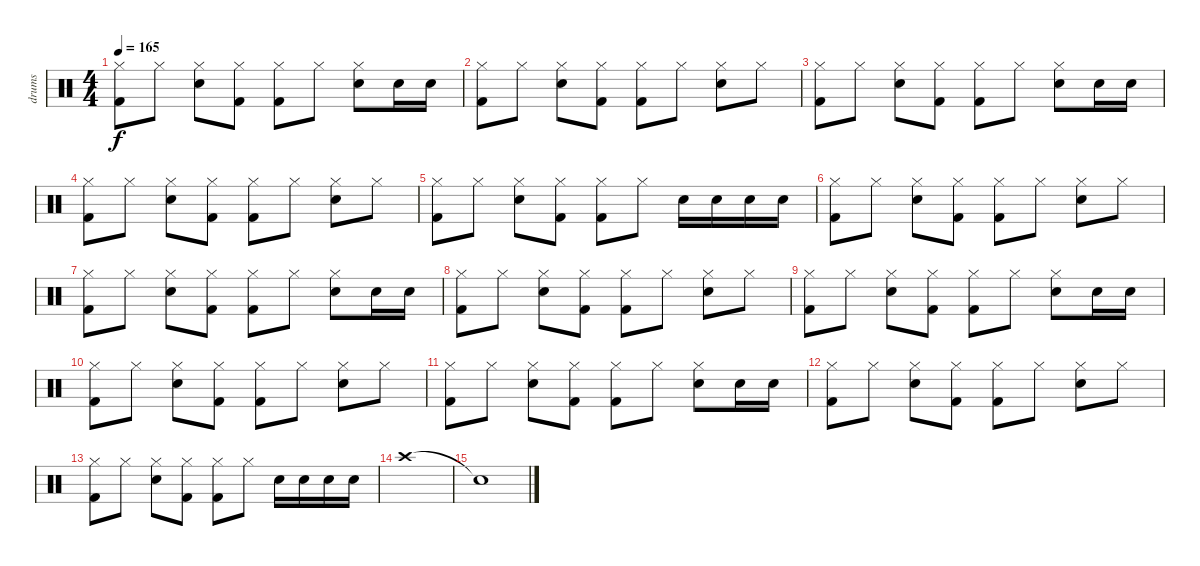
\track ("drums" "drums") {instrument percussion}
\staff {score}
\articulation defaults
\ts (4 4)
\tempo 165
\clef neutral
\ks c
("Hi-Hat (closed)" "Kick (hit) 2").8{dy f} "Hi-Hat (closed)".8 ("Snare (hit) 2" "Hi-Hat (closed)").8 ("Hi-Hat (closed)" "Kick (hit) 2").8 ("Hi-Hat (closed)" "Kick (hit) 2").8 "Hi-Hat (closed)".8 ("Snare (hit) 2" "Hi-Hat (closed)").8 "Snare (hit) 2".16 "Snare (hit) 2".16 |
("Hi-Hat (closed)" "Kick (hit) 2").8 "Hi-Hat (closed)".8 ("Snare (hit) 2" "Hi-Hat (closed)").8 ("Hi-Hat (closed)" "Kick (hit) 2").8 ("Hi-Hat (closed)" "Kick (hit) 2").8 "Hi-Hat (closed)".8 ("Snare (hit) 2" "Hi-Hat (closed)").8 "Hi-Hat (closed)".8 |
("Hi-Hat (closed)" "Kick (hit) 2").8 "Hi-Hat (closed)".8 ("Snare (hit) 2" "Hi-Hat (closed)").8 ("Hi-Hat (closed)" "Kick (hit) 2").8 ("Hi-Hat (closed)" "Kick (hit) 2").8 "Hi-Hat (closed)".8 ("Snare (hit) 2" "Hi-Hat (closed)").8 "Snare (hit) 2".16 "Snare (hit) 2".16 |
("Hi-Hat (closed)" "Kick (hit) 2").8 "Hi-Hat (closed)".8 ("Snare (hit) 2" "Hi-Hat (closed)").8 ("Hi-Hat (closed)" "Kick (hit) 2").8 ("Hi-Hat (closed)" "Kick (hit) 2").8 "Hi-Hat (closed)".8 ("Snare (hit) 2" "Hi-Hat (closed)").8 "Hi-Hat (closed)".8 |
("Hi-Hat (closed)" "Kick (hit) 2").8 "Hi-Hat (closed)".8 ("Snare (hit) 2" "Hi-Hat (closed)").8 ("Hi-Hat (closed)" "Kick (hit) 2").8 ("Hi-Hat (closed)" "Kick (hit) 2").8 "Hi-Hat (closed)".8 "Snare (hit) 2".16 "Snare (hit) 2".16 "Snare (hit) 2".16 "Snare (hit) 2".16 |
("Hi-Hat (closed)" "Kick (hit) 2").8 "Hi-Hat (closed)".8 ("Snare (hit) 2" "Hi-Hat (closed)").8 ("Hi-Hat (closed)" "Kick (hit) 2").8 ("Hi-Hat (closed)" "Kick (hit) 2").8 "Hi-Hat (closed)".8 ("Snare (hit) 2" "Hi-Hat (closed)").8 "Hi-Hat (closed)".8 |
("Hi-Hat (closed)" "Kick (hit) 2").8 "Hi-Hat (closed)".8 ("Snare (hit) 2" "Hi-Hat (closed)").8 ("Hi-Hat (closed)" "Kick (hit) 2").8 ("Hi-Hat (closed)" "Kick (hit) 2").8 "Hi-Hat (closed)".8 ("Snare (hit) 2" "Hi-Hat (closed)").8 "Snare (hit) 2".16 "Snare (hit) 2".16 |
("Hi-Hat (closed)" "Kick (hit) 2").8 "Hi-Hat (closed)".8 ("Snare (hit) 2" "Hi-Hat (closed)").8 ("Hi-Hat (closed)" "Kick (hit) 2").8 ("Hi-Hat (closed)" "Kick (hit) 2").8 "Hi-Hat (closed)".8 ("Snare (hit) 2" "Hi-Hat (closed)").8 "Hi-Hat (closed)".8 |
("Hi-Hat (closed)" "Kick (hit) 2").8 "Hi-Hat (closed)".8 ("Snare (hit) 2" "Hi-Hat (closed)").8 ("Hi-Hat (closed)" "Kick (hit) 2").8 ("Hi-Hat (closed)" "Kick (hit) 2").8 "Hi-Hat (closed)".8 ("Snare (hit) 2" "Hi-Hat (closed)").8 "Snare (hit) 2".16 "Snare (hit) 2".16 |
("Hi-Hat (closed)" "Kick (hit) 2").8 "Hi-Hat (closed)".8 ("Snare (hit) 2" "Hi-Hat (closed)").8 ("Hi-Hat (closed)" "Kick (hit) 2").8 ("Hi-Hat (closed)" "Kick (hit) 2").8 "Hi-Hat (closed)".8 ("Snare (hit) 2" "Hi-Hat (closed)").8 "Hi-Hat (closed)".8 |
("Hi-Hat (closed)" "Kick (hit) 2").8 "Hi-Hat (closed)".8 ("Snare (hit) 2" "Hi-Hat (closed)").8 ("Hi-Hat (closed)" "Kick (hit) 2").8 ("Hi-Hat (closed)" "Kick (hit) 2").8 "Hi-Hat (closed)".8 ("Snare (hit) 2" "Hi-Hat (closed)").8 "Snare (hit) 2".16 "Snare (hit) 2".16 |
("Hi-Hat (closed)" "Kick (hit) 2").8 "Hi-Hat (closed)".8 ("Snare (hit) 2" "Hi-Hat (closed)").8 ("Hi-Hat (closed)" "Kick (hit) 2").8 ("Hi-Hat (closed)" "Kick (hit) 2").8 "Hi-Hat (closed)".8 ("Snare (hit) 2" "Hi-Hat (closed)").8 "Hi-Hat (closed)".8 |
("Hi-Hat (closed)" "Kick (hit) 2").8 "Hi-Hat (closed)".8 ("Snare (hit) 2" "Hi-Hat (closed)").8 ("Hi-Hat (closed)" "Kick (hit) 2").8 ("Hi-Hat (closed)" "Kick (hit) 2").8 "Hi-Hat (closed)".8 "Snare (hit) 2".16 "Snare (hit) 2".16 "Snare (hit) 2".16 "Snare (hit) 2".16 |
"Crash high (hit)".1 |
"Snare (hit)"{t}.1
